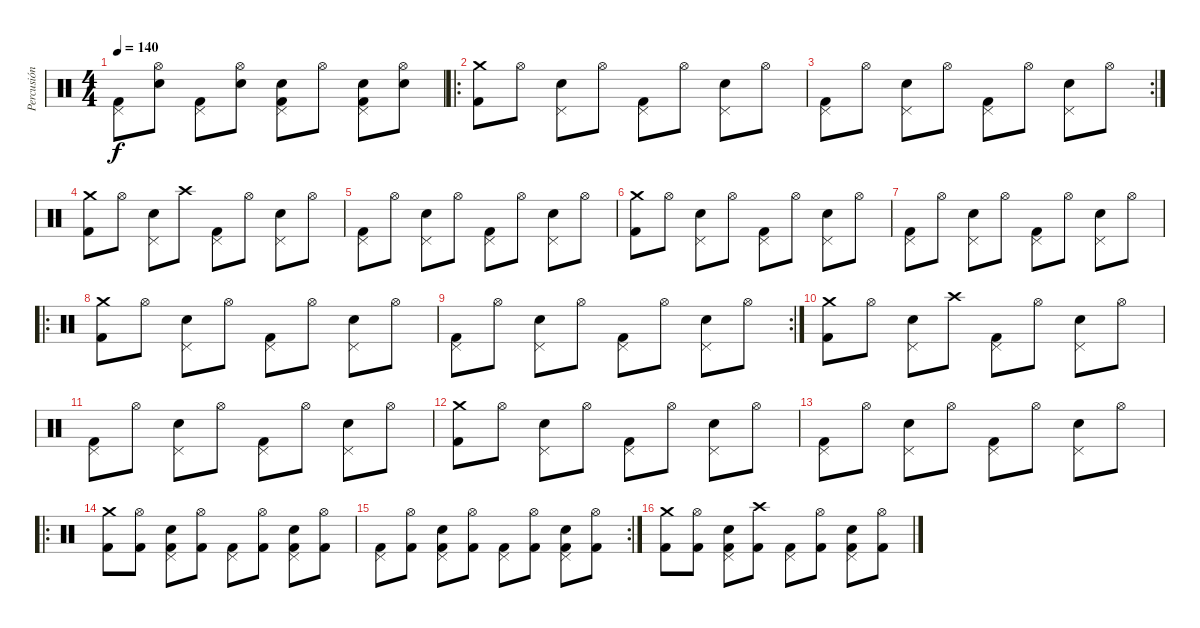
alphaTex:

\track ("Percusión" "Percusión") {instrument percussion}
\staff {score}
\articulation defaults
\ts (4 4)
\tempo 140
\clef neutral
\ks c
("Pedal Hi-Hat (hit)" "Kick (hit) 2").8{dy f} ("Hi-Hat (open)" "Electric Snare (hit)").8 ("Pedal Hi-Hat (hit)" "Kick (hit) 2").8 ("Hi-Hat (open)" "Electric Snare (hit)").8 ("Pedal Hi-Hat (hit)" "Electric Snare (hit)" "Kick (hit) 2").8 "Hi-Hat (open)".8 ("Pedal Hi-Hat (hit)" "Electric Snare (hit)" "Kick (hit) 2").8 ("Hi-Hat (open)" "Electric Snare (hit)").8 |
\ro
("Crash medium (hit)" "Kick (hit) 2").8 "Hi-Hat (open)".8 ("Pedal Hi-Hat (hit)" "Electric Snare (hit)").8 "Hi-Hat (open)".8 ("Pedal Hi-Hat (hit)" "Kick (hit) 2").8 "Hi-Hat (open)".8 ("Pedal Hi-Hat (hit)" "Electric Snare (hit)").8 "Hi-Hat (open)".8 |
\rc 2
("Pedal Hi-Hat (hit)" "Kick (hit) 2").8 "Hi-Hat (open)".8 ("Pedal Hi-Hat (hit)" "Electric Snare (hit)").8 "Hi-Hat (open)".8 ("Pedal Hi-Hat (hit)" "Kick (hit) 2").8 "Hi-Hat (open)".8 ("Pedal Hi-Hat (hit)" "Electric Snare (hit)").8 "Hi-Hat (open)".8 |
("Crash medium (hit)" "Kick (hit) 2").8 "Hi-Hat (open)".8 ("Pedal Hi-Hat (hit)" "Electric Snare (hit)").8 "Crash high (hit)".8 ("Pedal Hi-Hat (hit)" "Kick (hit) 2").8 "Hi-Hat (open)".8 ("Pedal Hi-Hat (hit)" "Electric Snare (hit)").8 "Hi-Hat (open)".8 |
("Pedal Hi-Hat (hit)" "Kick (hit) 2").8 "Hi-Hat (open)".8 ("Pedal Hi-Hat (hit)" "Electric Snare (hit)").8 "Hi-Hat (open)".8 ("Pedal Hi-Hat (hit)" "Kick (hit) 2").8 "Hi-Hat (open)".8 ("Pedal Hi-Hat (hit)" "Electric Snare (hit)").8 "Hi-Hat (open)".8 |
("Crash medium (hit)" "Kick (hit) 2").8 "Hi-Hat (open)".8 ("Pedal Hi-Hat (hit)" "Electric Snare (hit)").8 "Hi-Hat (open)".8 ("Pedal Hi-Hat (hit)" "Kick (hit) 2").8 "Hi-Hat (open)".8 ("Pedal Hi-Hat (hit)" "Electric Snare (hit)").8 "Hi-Hat (open)".8 |
("Pedal Hi-Hat (hit)" "Kick (hit) 2").8 "Hi-Hat (open)".8 ("Pedal Hi-Hat (hit)" "Electric Snare (hit)").8 "Hi-Hat (open)".8 ("Pedal Hi-Hat (hit)" "Kick (hit) 2").8 "Hi-Hat (open)".8 ("Pedal Hi-Hat (hit)" "Electric Snare (hit)").8 "Hi-Hat (open)".8 |
\ro
("Crash medium (hit)" "Kick (hit) 2").8 "Hi-Hat (open)".8 ("Pedal Hi-Hat (hit)" "Electric Snare (hit)").8 "Hi-Hat (open)".8 ("Pedal Hi-Hat (hit)" "Kick (hit) 2").8 "Hi-Hat (open)".8 ("Pedal Hi-Hat (hit)" "Electric Snare (hit)").8 "Hi-Hat (open)".8 |
\rc 2
("Pedal Hi-Hat (hit)" "Kick (hit) 2").8 "Hi-Hat (open)".8 ("Pedal Hi-Hat (hit)" "Electric Snare (hit)").8 "Hi-Hat (open)".8 ("Pedal Hi-Hat (hit)" "Kick (hit) 2").8 "Hi-Hat (open)".8 ("Pedal Hi-Hat (hit)" "Electric Snare (hit)").8 "Hi-Hat (open)".8 |
("Crash medium (hit)" "Kick (hit) 2").8 "Hi-Hat (open)".8 ("Pedal Hi-Hat (hit)" "Electric Snare (hit)").8 "Crash high (hit)".8 ("Pedal Hi-Hat (hit)" "Kick (hit) 2").8 "Hi-Hat (open)".8 ("Pedal Hi-Hat (hit)" "Electric Snare (hit)").8 "Hi-Hat (open)".8 |
("Pedal Hi-Hat (hit)" "Kick (hit) 2").8 "Hi-Hat (open)".8 ("Pedal Hi-Hat (hit)" "Electric Snare (hit)").8 "Hi-Hat (open)".8 ("Pedal Hi-Hat (hit)" "Kick (hit) 2").8 "Hi-Hat (open)".8 ("Pedal Hi-Hat (hit)" "Electric Snare (hit)").8 "Hi-Hat (open)".8 |
("Crash medium (hit)" "Kick (hit) 2").8 "Hi-Hat (open)".8 ("Pedal Hi-Hat (hit)" "Electric Snare (hit)").8 "Hi-Hat (open)".8 ("Pedal Hi-Hat (hit)" "Kick (hit) 2").8 "Hi-Hat (open)".8 ("Pedal Hi-Hat (hit)" "Electric Snare (hit)").8 "Hi-Hat (open)".8 |
("Pedal Hi-Hat (hit)" "Kick (hit) 2").8 "Hi-Hat (open)".8 ("Pedal Hi-Hat (hit)" "Electric Snare (hit)").8 "Hi-Hat (open)".8 ("Pedal Hi-Hat (hit)" "Kick (hit) 2").8 "Hi-Hat (open)".8 ("Pedal Hi-Hat (hit)" "Electric Snare (hit)").8 "Hi-Hat (open)".8 |
\ro
("Crash medium (hit)" "Kick (hit) 2").8 ("Hi-Hat (open)" "Kick (hit) 2").8 ("Pedal Hi-Hat (hit)" "Electric Snare (hit)" "Kick (hit) 2").8 ("Hi-Hat (open)" "Kick (hit) 2").8 ("Pedal Hi-Hat (hit)" "Kick (hit) 2").8 ("Hi-Hat (open)" "Kick (hit) 2").8 ("Pedal Hi-Hat (hit)" "Electric Snare (hit)" "Kick (hit) 2").8 ("Hi-Hat (open)" "Kick (hit) 2").8 |
\rc 2
("Pedal Hi-Hat (hit)" "Kick (hit) 2").8 ("Hi-Hat (open)" "Kick (hit) 2").8 ("Pedal Hi-Hat (hit)" "Electric Snare (hit)" "Kick (hit) 2").8 ("Hi-Hat (open)" "Kick (hit) 2").8 ("Pedal Hi-Hat (hit)" "Kick (hit) 2").8 ("Hi-Hat (open)" "Kick (hit) 2").8 ("Pedal Hi-Hat (hit)" "Electric Snare (hit)" "Kick (hit) 2").8 ("Hi-Hat (open)" "Kick (hit) 2").8 |
("Crash medium (hit)" "Kick (hit) 2").8 ("Hi-Hat (open)" "Kick (hit) 2").8 ("Pedal Hi-Hat (hit)" "Electric Snare (hit)" "Kick (hit) 2").8 ("Crash high (hit)" "Kick (hit) 2").8 ("Pedal Hi-Hat (hit)" "Kick (hit) 2").8 ("Hi-Hat (open)" "Kick (hit) 2").8 ("Pedal Hi-Hat (hit)" "Electric Snare (hit)" "Kick (hit) 2").8 ("Hi-Hat (open)" "Kick (hit) 2").8
